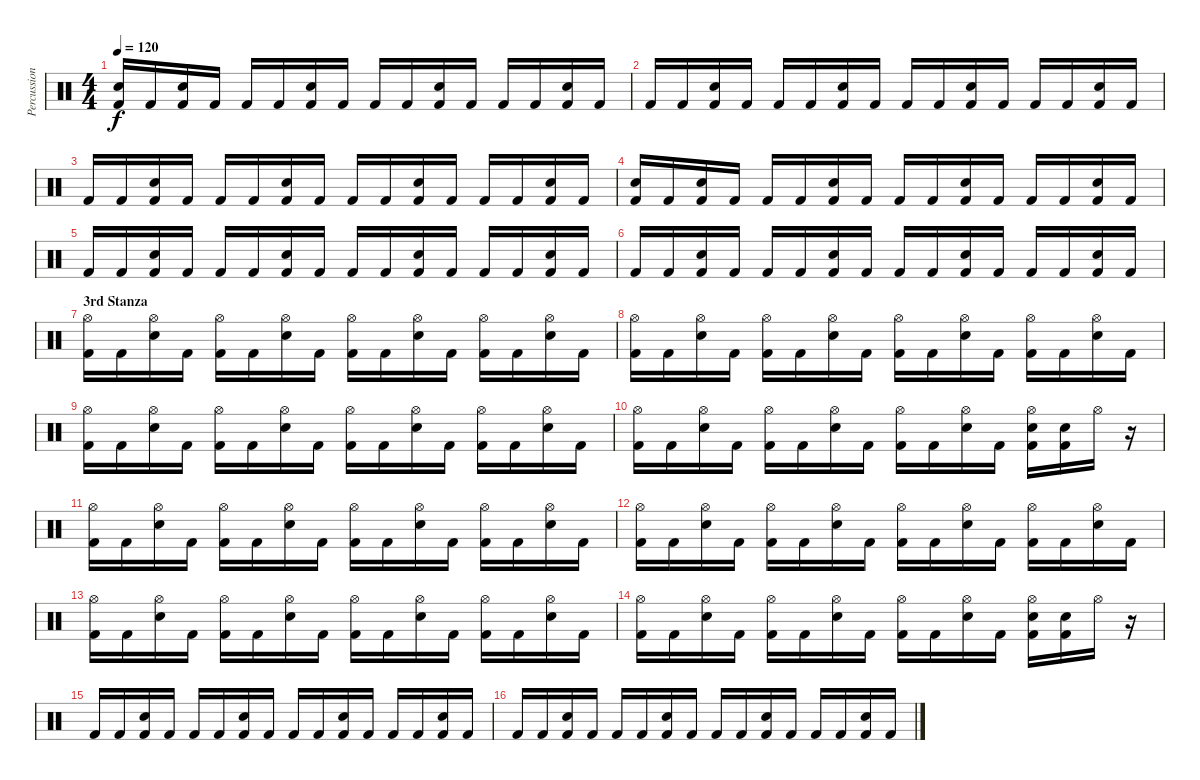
\track ("Percussion" "Percussion") {instrument percussion}
\staff {score}
\articulation defaults
\ts (4 4)
\tempo 120
\clef neutral
\ks c
("Snare (hit) 2" "Kick (hit) 2").16{dy f} "Kick (hit) 2".16 ("Snare (hit) 2" "Kick (hit) 2").16 "Kick (hit) 2".16 "Kick (hit) 2".16 "Kick (hit) 2".16 ("Snare (hit) 2" "Kick (hit) 2").16 "Kick (hit) 2".16 "Kick (hit) 2".16 "Kick (hit) 2".16 ("Snare (hit) 2" "Kick (hit) 2").16 "Kick (hit) 2".16 "Kick (hit) 2".16 "Kick (hit) 2".16 ("Snare (hit) 2" "Kick (hit) 2").16 "Kick (hit) 2".16 |
"Kick (hit) 2".16 "Kick (hit) 2".16 ("Snare (hit) 2" "Kick (hit) 2").16 "Kick (hit) 2".16 "Kick (hit) 2".16 "Kick (hit) 2".16 ("Snare (hit) 2" "Kick (hit) 2").16 "Kick (hit) 2".16 "Kick (hit) 2".16 "Kick (hit) 2".16 ("Snare (hit) 2" "Kick (hit) 2").16 "Kick (hit) 2".16 "Kick (hit) 2".16 "Kick (hit) 2".16 ("Snare (hit) 2" "Kick (hit) 2").16 "Kick (hit) 2".16 |
"Kick (hit) 2".16 "Kick (hit) 2".16 ("Snare (hit) 2" "Kick (hit) 2").16 "Kick (hit) 2".16 "Kick (hit) 2".16 "Kick (hit) 2".16 ("Snare (hit) 2" "Kick (hit) 2").16 "Kick (hit) 2".16 "Kick (hit) 2".16 "Kick (hit) 2".16 ("Snare (hit) 2" "Kick (hit) 2").16 "Kick (hit) 2".16 "Kick (hit) 2".16 "Kick (hit) 2".16 ("Snare (hit) 2" "Kick (hit) 2").16 "Kick (hit) 2".16 |
("Snare (hit) 2" "Kick (hit) 2").16 "Kick (hit) 2".16 ("Snare (hit) 2" "Kick (hit) 2").16 "Kick (hit) 2".16 "Kick (hit) 2".16 "Kick (hit) 2".16 ("Snare (hit) 2" "Kick (hit) 2").16 "Kick (hit) 2".16 "Kick (hit) 2".16 "Kick (hit) 2".16 ("Snare (hit) 2" "Kick (hit) 2").16 "Kick (hit) 2".16 "Kick (hit) 2".16 "Kick (hit) 2".16 ("Snare (hit) 2" "Kick (hit) 2").16 "Kick (hit) 2".16 |
"Kick (hit) 2".16 "Kick (hit) 2".16 ("Snare (hit) 2" "Kick (hit) 2").16 "Kick (hit) 2".16 "Kick (hit) 2".16 "Kick (hit) 2".16 ("Snare (hit) 2" "Kick (hit) 2").16 "Kick (hit) 2".16 "Kick (hit) 2".16 "Kick (hit) 2".16 ("Snare (hit) 2" "Kick (hit) 2").16 "Kick (hit) 2".16 "Kick (hit) 2".16 "Kick (hit) 2".16 ("Snare (hit) 2" "Kick (hit) 2").16 "Kick (hit) 2".16 |
"Kick (hit) 2".16 "Kick (hit) 2".16 ("Snare (hit) 2" "Kick (hit) 2").16 "Kick (hit) 2".16 "Kick (hit) 2".16 "Kick (hit) 2".16 ("Snare (hit) 2" "Kick (hit) 2").16 "Kick (hit) 2".16 "Kick (hit) 2".16 "Kick (hit) 2".16 ("Snare (hit) 2" "Kick (hit) 2").16 "Kick (hit) 2".16 "Kick (hit) 2".16 "Kick (hit) 2".16 ("Snare (hit) 2" "Kick (hit) 2").16 "Kick (hit) 2".16 |
\section ("" "3rd Stanza")
("Hi-Hat (open)" "Kick (hit) 2").16 "Kick (hit) 2".16 ("Hi-Hat (open)" "Snare (hit) 2").16 "Kick (hit) 2".16 ("Hi-Hat (open)" "Kick (hit) 2").16 "Kick (hit) 2".16 ("Hi-Hat (open)" "Snare (hit) 2").16 "Kick (hit) 2".16 ("Hi-Hat (open)" "Kick (hit) 2").16 "Kick (hit) 2".16 ("Hi-Hat (open)" "Snare (hit) 2").16 "Kick (hit) 2".16 ("Hi-Hat (open)" "Kick (hit) 2").16 "Kick (hit) 2".16 ("Hi-Hat (open)" "Snare (hit) 2").16 "Kick (hit) 2".16 |
("Hi-Hat (open)" "Kick (hit) 2").16 "Kick (hit) 2".16 ("Hi-Hat (open)" "Snare (hit) 2").16 "Kick (hit) 2".16 ("Hi-Hat (open)" "Kick (hit) 2").16 "Kick (hit) 2".16 ("Hi-Hat (open)" "Snare (hit) 2").16 "Kick (hit) 2".16 ("Hi-Hat (open)" "Kick (hit) 2").16 "Kick (hit) 2".16 ("Hi-Hat (open)" "Snare (hit) 2").16 "Kick (hit) 2".16 ("Hi-Hat (open)" "Kick (hit) 2").16 "Kick (hit) 2".16 ("Hi-Hat (open)" "Snare (hit) 2").16 "Kick (hit) 2".16 |
("Hi-Hat (open)" "Kick (hit) 2").16 "Kick (hit) 2".16 ("Hi-Hat (open)" "Snare (hit) 2").16 "Kick (hit) 2".16 ("Hi-Hat (open)" "Kick (hit) 2").16 "Kick (hit) 2".16 ("Hi-Hat (open)" "Snare (hit) 2").16 "Kick (hit) 2".16 ("Hi-Hat (open)" "Kick (hit) 2").16 "Kick (hit) 2".16 ("Hi-Hat (open)" "Snare (hit) 2").16 "Kick (hit) 2".16 ("Hi-Hat (open)" "Kick (hit) 2").16 "Kick (hit) 2".16 ("Hi-Hat (open)" "Snare (hit) 2").16 "Kick (hit) 2".16 |
("Hi-Hat (open)" "Kick (hit) 2").16 "Kick (hit) 2".16 ("Hi-Hat (open)" "Snare (hit) 2").16 "Kick (hit) 2".16 ("Hi-Hat (open)" "Kick (hit) 2").16 "Kick (hit) 2".16 ("Hi-Hat (open)" "Snare (hit) 2").16 "Kick (hit) 2".16 ("Hi-Hat (open)" "Kick (hit) 2").16 "Kick (hit) 2".16 ("Hi-Hat (open)" "Snare (hit) 2").16 "Kick (hit) 2".16 ("Hi-Hat (open)" "Snare (hit) 2" "Kick (hit) 2").16 ("Snare (hit) 2" "Kick (hit) 2").16 "Hi-Hat (open)".16 r.16 |
("Hi-Hat (open)" "Kick (hit) 2").16 "Kick (hit) 2".16 ("Hi-Hat (open)" "Snare (hit) 2").16 "Kick (hit) 2".16 ("Hi-Hat (open)" "Kick (hit) 2").16 "Kick (hit) 2".16 ("Hi-Hat (open)" "Snare (hit) 2").16 "Kick (hit) 2".16 ("Hi-Hat (open)" "Kick (hit) 2").16 "Kick (hit) 2".16 ("Hi-Hat (open)" "Snare (hit) 2").16 "Kick (hit) 2".16 ("Hi-Hat (open)" "Kick (hit) 2").16 "Kick (hit) 2".16 ("Hi-Hat (open)" "Snare (hit) 2").16 "Kick (hit) 2".16 |
("Hi-Hat (open)" "Kick (hit) 2").16 "Kick (hit) 2".16 ("Hi-Hat (open)" "Snare (hit) 2").16 "Kick (hit) 2".16 ("Hi-Hat (open)" "Kick (hit) 2").16 "Kick (hit) 2".16 ("Hi-Hat (open)" "Snare (hit) 2").16 "Kick (hit) 2".16 ("Hi-Hat (open)" "Kick (hit) 2").16 "Kick (hit) 2".16 ("Hi-Hat (open)" "Snare (hit) 2").16 "Kick (hit) 2".16 ("Hi-Hat (open)" "Kick (hit) 2").16 "Kick (hit) 2".16 ("Hi-Hat (open)" "Snare (hit) 2").16 "Kick (hit) 2".16 |
("Hi-Hat (open)" "Kick (hit) 2").16 "Kick (hit) 2".16 ("Hi-Hat (open)" "Snare (hit) 2").16 "Kick (hit) 2".16 ("Hi-Hat (open)" "Kick (hit) 2").16 "Kick (hit) 2".16 ("Hi-Hat (open)" "Snare (hit) 2").16 "Kick (hit) 2".16 ("Hi-Hat (open)" "Kick (hit) 2").16 "Kick (hit) 2".16 ("Hi-Hat (open)" "Snare (hit) 2").16 "Kick (hit) 2".16 ("Hi-Hat (open)" "Kick (hit) 2").16 "Kick (hit) 2".16 ("Hi-Hat (open)" "Snare (hit) 2").16 "Kick (hit) 2".16 |
("Hi-Hat (open)" "Kick (hit) 2").16 "Kick (hit) 2".16 ("Hi-Hat (open)" "Snare (hit) 2").16 "Kick (hit) 2".16 ("Hi-Hat (open)" "Kick (hit) 2").16 "Kick (hit) 2".16 ("Hi-Hat (open)" "Snare (hit) 2").16 "Kick (hit) 2".16 ("Hi-Hat (open)" "Kick (hit) 2").16 "Kick (hit) 2".16 ("Hi-Hat (open)" "Snare (hit) 2").16 "Kick (hit) 2".16 ("Hi-Hat (open)" "Snare (hit) 2" "Kick (hit) 2").16 ("Snare (hit) 2" "Kick (hit) 2").16 "Hi-Hat (open)".16 r.16 |
"Kick (hit) 2".16 "Kick (hit) 2".16 ("Snare (hit) 2" "Kick (hit) 2").16 "Kick (hit) 2".16 "Kick (hit) 2".16 "Kick (hit) 2".16 ("Snare (hit) 2" "Kick (hit) 2").16 "Kick (hit) 2".16 "Kick (hit) 2".16 "Kick (hit) 2".16 ("Snare (hit) 2" "Kick (hit) 2").16 "Kick (hit) 2".16 "Kick (hit) 2".16 "Kick (hit) 2".16 ("Snare (hit) 2" "Kick (hit) 2").16 "Kick (hit) 2".16 |
"Kick (hit) 2".16 "Kick (hit) 2".16 ("Snare (hit) 2" "Kick (hit) 2").16 "Kick (hit) 2".16 "Kick (hit) 2".16 "Kick (hit) 2".16 ("Snare (hit) 2" "Kick (hit) 2").16 "Kick (hit) 2".16 "Kick (hit) 2".16 "Kick (hit) 2".16 ("Snare (hit) 2" "Kick (hit) 2").16 "Kick (hit) 2".16 "Kick (hit) 2".16 "Kick (hit) 2".16 ("Snare (hit) 2" "Kick (hit) 2").16 "Kick (hit) 2".16
